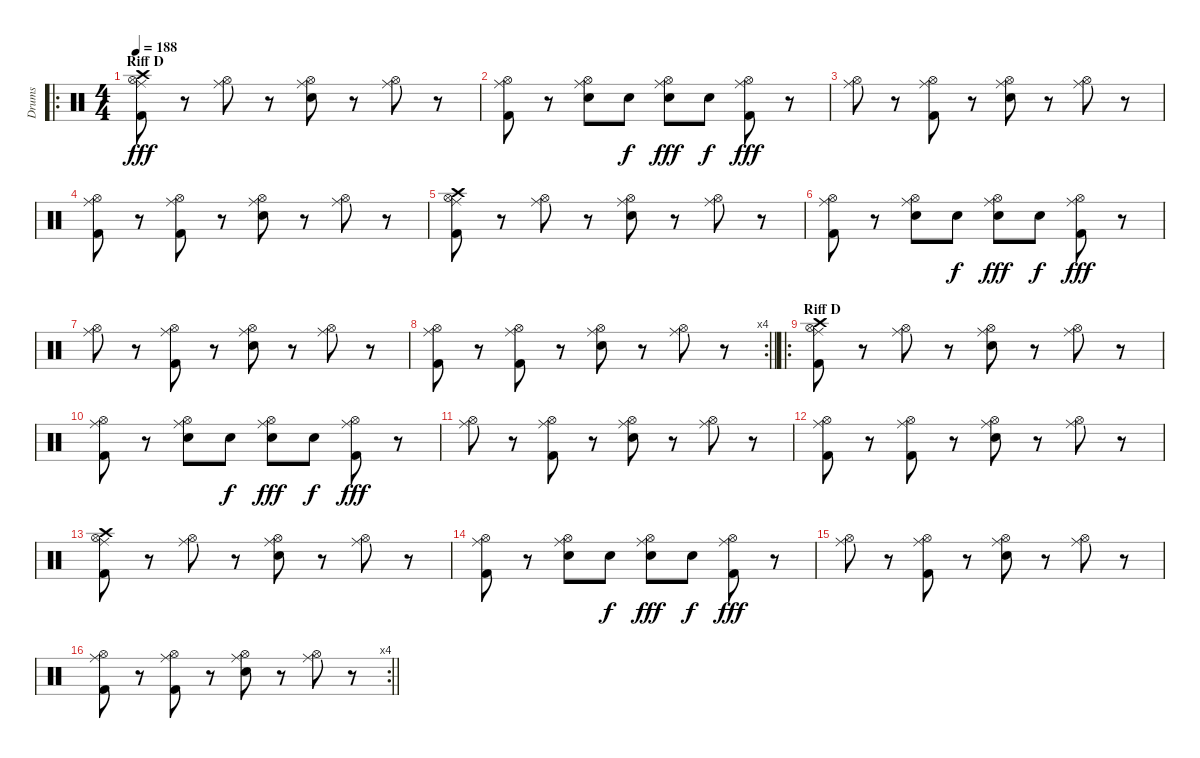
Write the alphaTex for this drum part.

\track ("Drums" "Drums") {instrument percussion}
\staff {score}
\articulation defaults
\ro
\ts (4 4)
\section ("" "Riff D")
\tempo 188
\clef neutral
\ks c
("Crash high (hit)" "Ride (middle)" "Hi-Hat (open)" "Kick (hit) 2").8{dy fff} r.8 ("Ride (middle)" "Hi-Hat (open)").8 r.8 ("Ride (middle)" "Hi-Hat (open)" "Electric Snare (hit)").8 r.8 ("Ride (middle)" "Hi-Hat (open)").8 r.8 |
("Ride (middle)" "Hi-Hat (open)" "Kick (hit) 2").8 r.8 ("Ride (middle)" "Hi-Hat (open)" "Electric Snare (hit)").8 "Electric Snare (hit)".8{dy f} ("Ride (middle)" "Hi-Hat (open)" "Electric Snare (hit)").8{dy fff} "Electric Snare (hit)".8{dy f} ("Ride (middle)" "Hi-Hat (open)" "Kick (hit) 2").8{dy fff} r.8 |
("Ride (middle)" "Hi-Hat (open)").8 r.8 ("Ride (middle)" "Hi-Hat (open)" "Kick (hit) 2").8 r.8 ("Ride (middle)" "Hi-Hat (open)" "Electric Snare (hit)").8 r.8 ("Ride (middle)" "Hi-Hat (open)").8 r.8 |
("Ride (middle)" "Hi-Hat (open)" "Kick (hit) 2").8 r.8 ("Ride (middle)" "Hi-Hat (open)" "Kick (hit) 2").8 r.8 ("Ride (middle)" "Hi-Hat (open)" "Electric Snare (hit)").8 r.8 ("Ride (middle)" "Hi-Hat (open)").8 r.8 |
("Crash high (hit)" "Ride (middle)" "Hi-Hat (open)" "Kick (hit) 2").8 r.8 ("Ride (middle)" "Hi-Hat (open)").8 r.8 ("Ride (middle)" "Hi-Hat (open)" "Electric Snare (hit)").8 r.8 ("Ride (middle)" "Hi-Hat (open)").8 r.8 |
("Ride (middle)" "Hi-Hat (open)" "Kick (hit) 2").8 r.8 ("Ride (middle)" "Hi-Hat (open)" "Electric Snare (hit)").8 "Electric Snare (hit)".8{dy f} ("Ride (middle)" "Hi-Hat (open)" "Electric Snare (hit)").8{dy fff} "Electric Snare (hit)".8{dy f} ("Ride (middle)" "Hi-Hat (open)" "Kick (hit) 2").8{dy fff} r.8 |
("Ride (middle)" "Hi-Hat (open)").8 r.8 ("Ride (middle)" "Hi-Hat (open)" "Kick (hit) 2").8 r.8 ("Ride (middle)" "Hi-Hat (open)" "Electric Snare (hit)").8 r.8 ("Ride (middle)" "Hi-Hat (open)").8 r.8 |
\rc 4
\barLineRight lightlight
("Ride (middle)" "Hi-Hat (open)" "Kick (hit) 2").8 r.8 ("Ride (middle)" "Hi-Hat (open)" "Kick (hit) 2").8 r.8 ("Ride (middle)" "Hi-Hat (open)" "Electric Snare (hit)").8 r.8 ("Ride (middle)" "Hi-Hat (open)").8 r.8 |
\ro
\section ("" "Riff D")
("Crash high (hit)" "Ride (middle)" "Hi-Hat (open)" "Kick (hit) 2").8 r.8 ("Ride (middle)" "Hi-Hat (open)").8 r.8 ("Ride (middle)" "Hi-Hat (open)" "Electric Snare (hit)").8 r.8 ("Ride (middle)" "Hi-Hat (open)").8 r.8 |
("Ride (middle)" "Hi-Hat (open)" "Kick (hit) 2").8 r.8 ("Ride (middle)" "Hi-Hat (open)" "Electric Snare (hit)").8 "Electric Snare (hit)".8{dy f} ("Ride (middle)" "Hi-Hat (open)" "Electric Snare (hit)").8{dy fff} "Electric Snare (hit)".8{dy f} ("Ride (middle)" "Hi-Hat (open)" "Kick (hit) 2").8{dy fff} r.8 |
("Ride (middle)" "Hi-Hat (open)").8 r.8 ("Ride (middle)" "Hi-Hat (open)" "Kick (hit) 2").8 r.8 ("Ride (middle)" "Hi-Hat (open)" "Electric Snare (hit)").8 r.8 ("Ride (middle)" "Hi-Hat (open)").8 r.8 |
("Ride (middle)" "Hi-Hat (open)" "Kick (hit) 2").8 r.8 ("Ride (middle)" "Hi-Hat (open)" "Kick (hit) 2").8 r.8 ("Ride (middle)" "Hi-Hat (open)" "Electric Snare (hit)").8 r.8 ("Ride (middle)" "Hi-Hat (open)").8 r.8 |
("Crash high (hit)" "Ride (middle)" "Hi-Hat (open)" "Kick (hit) 2").8 r.8 ("Ride (middle)" "Hi-Hat (open)").8 r.8 ("Ride (middle)" "Hi-Hat (open)" "Electric Snare (hit)").8 r.8 ("Ride (middle)" "Hi-Hat (open)").8 r.8 |
("Ride (middle)" "Hi-Hat (open)" "Kick (hit) 2").8 r.8 ("Ride (middle)" "Hi-Hat (open)" "Electric Snare (hit)").8 "Electric Snare (hit)".8{dy f} ("Ride (middle)" "Hi-Hat (open)" "Electric Snare (hit)").8{dy fff} "Electric Snare (hit)".8{dy f} ("Ride (middle)" "Hi-Hat (open)" "Kick (hit) 2").8{dy fff} r.8 |
("Ride (middle)" "Hi-Hat (open)").8 r.8 ("Ride (middle)" "Hi-Hat (open)" "Kick (hit) 2").8 r.8 ("Ride (middle)" "Hi-Hat (open)" "Electric Snare (hit)").8 r.8 ("Ride (middle)" "Hi-Hat (open)").8 r.8 |
\rc 4
\barLineRight lightlight
("Ride (middle)" "Hi-Hat (open)" "Kick (hit) 2").8 r.8 ("Ride (middle)" "Hi-Hat (open)" "Kick (hit) 2").8 r.8 ("Ride (middle)" "Hi-Hat (open)" "Electric Snare (hit)").8 r.8 ("Ride (middle)" "Hi-Hat (open)").8 r.8
